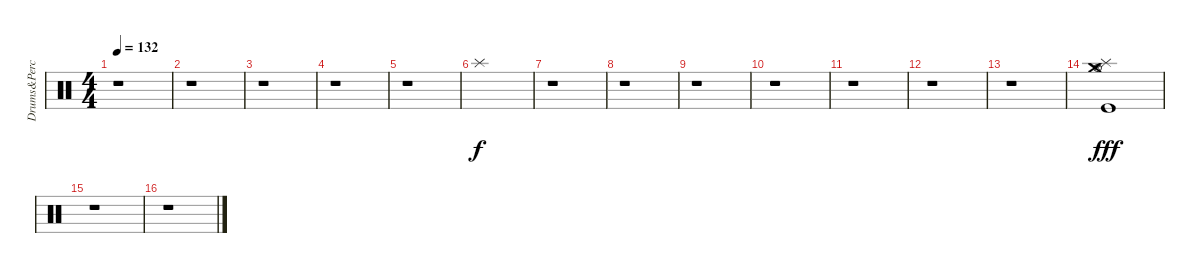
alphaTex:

\track ("Drums&Perc." "Drums&Perc") {instrument percussion}
\staff {score}
\articulation defaults
\ts (4 4)
\tempo 132
\clef neutral
\ks c
r.1{dy f} |
r.1 |
r.1 |
r.1 |
r.1 |
"Splash (hit)".1 |
r.1 |
r.1 |
r.1 |
r.1 |
r.1 |
r.1 |
r.1 |
("Crash medium (hit)" "Hi-Hat (open)" "Splash (hit)" "Kick (hit)").1{dy fff} |
r.1 |
r.1
